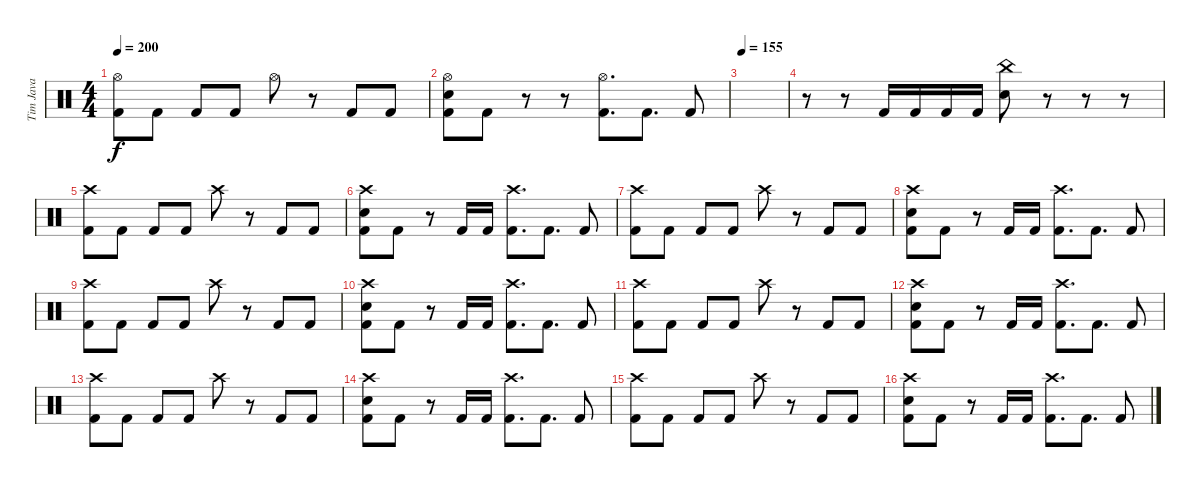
\track ("Tim Java" "Tim Java") {instrument percussion}
\staff {score}
\articulation defaults
\ts (4 4)
\tempo 200
\clef neutral
\ks c
("Hi-Hat (open)" "Kick (hit) 2").8{dy f} "Kick (hit) 2".8 "Kick (hit) 2".8 "Kick (hit) 2".8 "Hi-Hat (open)".8 r.8 "Kick (hit) 2".8 "Kick (hit) 2".8 |
("Hi-Hat (open)" "Electric Snare (hit)" "Kick (hit) 2").8 "Kick (hit) 2".8 r.8 r.8 ("Hi-Hat (open)" "Kick (hit) 2").8{d} "Kick (hit) 2".8{d} "Kick (hit) 2".8 |
\tempo 155
|
r.8 r.8 "Kick (hit) 2".16 "Kick (hit) 2".16 "Kick (hit) 2".16 "Kick (hit) 2".16 ("China (hit)" "Electric Snare (hit)").8 r.8 r.8 r.8 |
("Crash high (hit)" "Kick (hit) 2").8 "Kick (hit) 2".8 "Kick (hit) 2".8 "Kick (hit) 2".8 "Crash high (hit)".8 r.8 "Kick (hit) 2".8 "Kick (hit) 2".8 |
("Crash high (hit)" "Electric Snare (hit)" "Kick (hit) 2").8 "Kick (hit) 2".8 r.8 "Kick (hit) 2".16 "Kick (hit) 2".16 ("Crash high (hit)" "Kick (hit) 2").8{d} "Kick (hit) 2".8{d} "Kick (hit) 2".8 |
("Crash high (hit)" "Kick (hit) 2").8 "Kick (hit) 2".8 "Kick (hit) 2".8 "Kick (hit) 2".8 "Crash high (hit)".8 r.8 "Kick (hit) 2".8 "Kick (hit) 2".8 |
("Crash high (hit)" "Electric Snare (hit)" "Kick (hit) 2").8 "Kick (hit) 2".8 r.8 "Kick (hit) 2".16 "Kick (hit) 2".16 ("Crash high (hit)" "Kick (hit) 2").8{d} "Kick (hit) 2".8{d} "Kick (hit) 2".8 |
("Crash high (hit)" "Kick (hit) 2").8 "Kick (hit) 2".8 "Kick (hit) 2".8 "Kick (hit) 2".8 "Crash high (hit)".8 r.8 "Kick (hit) 2".8 "Kick (hit) 2".8 |
("Crash high (hit)" "Electric Snare (hit)" "Kick (hit) 2").8 "Kick (hit) 2".8 r.8 "Kick (hit) 2".16 "Kick (hit) 2".16 ("Crash high (hit)" "Kick (hit) 2").8{d} "Kick (hit) 2".8{d} "Kick (hit) 2".8 |
("Crash high (hit)" "Kick (hit) 2").8 "Kick (hit) 2".8 "Kick (hit) 2".8 "Kick (hit) 2".8 "Crash high (hit)".8 r.8 "Kick (hit) 2".8 "Kick (hit) 2".8 |
("Crash high (hit)" "Electric Snare (hit)" "Kick (hit) 2").8 "Kick (hit) 2".8 r.8 "Kick (hit) 2".16 "Kick (hit) 2".16 ("Crash high (hit)" "Kick (hit) 2").8{d} "Kick (hit) 2".8{d} "Kick (hit) 2".8 |
("Crash high (hit)" "Kick (hit) 2").8 "Kick (hit) 2".8 "Kick (hit) 2".8 "Kick (hit) 2".8 "Crash high (hit)".8 r.8 "Kick (hit) 2".8 "Kick (hit) 2".8 |
("Crash high (hit)" "Electric Snare (hit)" "Kick (hit) 2").8 "Kick (hit) 2".8 r.8 "Kick (hit) 2".16 "Kick (hit) 2".16 ("Crash high (hit)" "Kick (hit) 2").8{d} "Kick (hit) 2".8{d} "Kick (hit) 2".8 |
("Crash high (hit)" "Kick (hit) 2").8 "Kick (hit) 2".8 "Kick (hit) 2".8 "Kick (hit) 2".8 "Crash high (hit)".8 r.8 "Kick (hit) 2".8 "Kick (hit) 2".8 |
("Crash high (hit)" "Electric Snare (hit)" "Kick (hit) 2").8 "Kick (hit) 2".8 r.8 "Kick (hit) 2".16 "Kick (hit) 2".16 ("Crash high (hit)" "Kick (hit) 2").8{d} "Kick (hit) 2".8{d} "Kick (hit) 2".8
